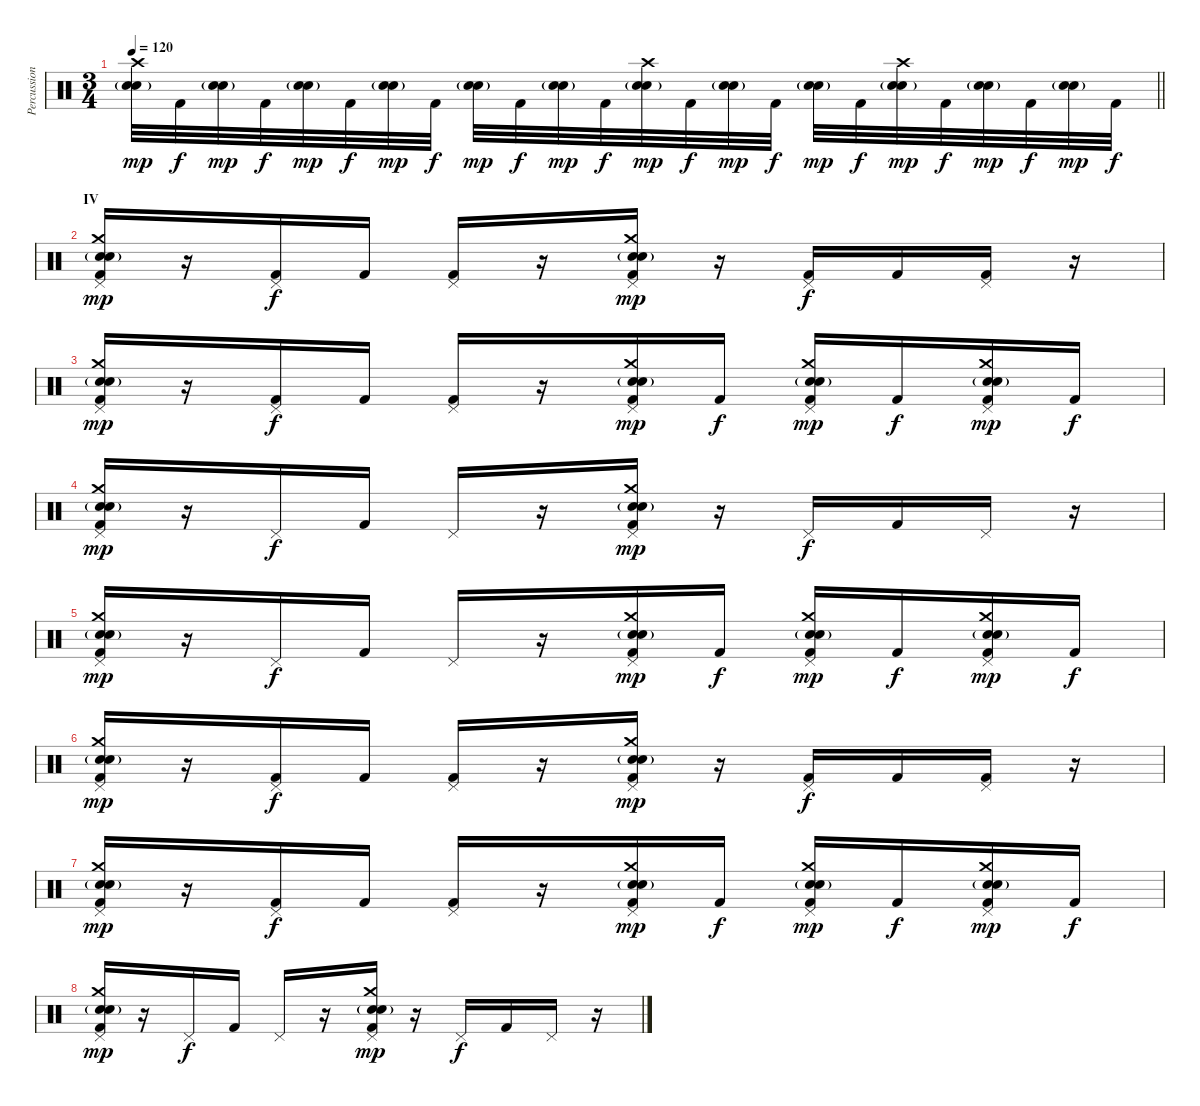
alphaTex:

\track ("Percussion" "Percussion") {instrument percussion}
\staff {score}
\articulation defaults
\ts (3 4)
\tempo 120
\clef neutral
\barLineRight lightlight
\ks c
("Crash high (hit)" "Electric Snare (hit)" "Snare (hit) 2"{g}).32{dy mp} "Kick (hit) 2".32{dy f} ("Electric Snare (hit)" "Snare (hit) 2"{g}).32{dy mp} "Kick (hit) 2".32{dy f} ("Electric Snare (hit)" "Snare (hit) 2"{g}).32{dy mp} "Kick (hit) 2".32{dy f} ("Electric Snare (hit)" "Snare (hit) 2"{g}).32{dy mp} "Kick (hit) 2".32{dy f} ("Electric Snare (hit)" "Snare (hit) 2"{g}).32{dy mp} "Kick (hit) 2".32{dy f} ("Electric Snare (hit)" "Snare (hit) 2"{g}).32{dy mp} "Kick (hit) 2".32{dy f} ("Crash high (hit)" "Electric Snare (hit)" "Snare (hit) 2"{g}).32{dy mp} "Kick (hit) 2".32{dy f} ("Electric Snare (hit)" "Snare (hit) 2"{g}).32{dy mp} "Kick (hit) 2".32{dy f} ("Electric Snare (hit)" "Snare (hit) 2"{g}).32{dy mp} "Kick (hit) 2".32{dy f} ("Crash high (hit)" "Electric Snare (hit)" "Snare (hit) 2"{g}).32{dy mp} "Kick (hit) 2".32{dy f} ("Electric Snare (hit)" "Snare (hit) 2"{g}).32{dy mp} "Kick (hit) 2".32{dy f} ("Electric Snare (hit)" "Snare (hit) 2"{g}).32{dy mp} "Kick (hit) 2".32{dy f} |
\section ("" "IV")
("Crash medium (hit)" "Electric Snare (hit)" "Snare (hit) 2"{g} "Kick (hit) 2" "Pedal Hi-Hat (hit)").16{dy mp} r.16 ("Kick (hit) 2" "Pedal Hi-Hat (hit)").16{dy f} "Kick (hit) 2".16 ("Kick (hit) 2" "Pedal Hi-Hat (hit)").16 r.16 ("Crash medium (hit)" "Electric Snare (hit)" "Snare (hit) 2"{g} "Kick (hit) 2" "Pedal Hi-Hat (hit)").16{dy mp} r.16 ("Kick (hit) 2" "Pedal Hi-Hat (hit)").16{dy f} "Kick (hit) 2".16 ("Kick (hit) 2" "Pedal Hi-Hat (hit)").16 r.16 |
("Crash medium (hit)" "Electric Snare (hit)" "Snare (hit) 2"{g} "Kick (hit) 2" "Pedal Hi-Hat (hit)").16{dy mp} r.16 ("Kick (hit) 2" "Pedal Hi-Hat (hit)").16{dy f} "Kick (hit) 2".16 ("Kick (hit) 2" "Pedal Hi-Hat (hit)").16 r.16 ("Crash medium (hit)" "Electric Snare (hit)" "Snare (hit) 2"{g} "Kick (hit) 2" "Pedal Hi-Hat (hit)").16{dy mp} "Kick (hit) 2".16{dy f} ("Crash medium (hit)" "Electric Snare (hit)" "Snare (hit) 2"{g} "Kick (hit) 2" "Pedal Hi-Hat (hit)").16{dy mp} "Kick (hit) 2".16{dy f} ("Crash medium (hit)" "Electric Snare (hit)" "Snare (hit) 2"{g} "Kick (hit) 2" "Pedal Hi-Hat (hit)").16{dy mp} "Kick (hit) 2".16{dy f} |
("Crash medium (hit)" "Electric Snare (hit)" "Snare (hit) 2"{g} "Kick (hit) 2" "Pedal Hi-Hat (hit)").16{dy mp} r.16 "Pedal Hi-Hat (hit)".16{dy f} "Kick (hit) 2".16 "Pedal Hi-Hat (hit)".16 r.16 ("Crash medium (hit)" "Electric Snare (hit)" "Snare (hit) 2"{g} "Kick (hit) 2" "Pedal Hi-Hat (hit)").16{dy mp} r.16 "Pedal Hi-Hat (hit)".16{dy f} "Kick (hit) 2".16 "Pedal Hi-Hat (hit)".16 r.16 |
("Crash medium (hit)" "Electric Snare (hit)" "Snare (hit) 2"{g} "Kick (hit) 2" "Pedal Hi-Hat (hit)").16{dy mp} r.16 "Pedal Hi-Hat (hit)".16{dy f} "Kick (hit) 2".16 "Pedal Hi-Hat (hit)".16 r.16 ("Crash medium (hit)" "Electric Snare (hit)" "Snare (hit) 2"{g} "Kick (hit) 2" "Pedal Hi-Hat (hit)").16{dy mp} "Kick (hit) 2".16{dy f} ("Crash medium (hit)" "Electric Snare (hit)" "Snare (hit) 2"{g} "Kick (hit) 2" "Pedal Hi-Hat (hit)").16{dy mp} "Kick (hit) 2".16{dy f} ("Crash medium (hit)" "Electric Snare (hit)" "Snare (hit) 2"{g} "Kick (hit) 2" "Pedal Hi-Hat (hit)").16{dy mp} "Kick (hit) 2".16{dy f} |
("Crash medium (hit)" "Electric Snare (hit)" "Snare (hit) 2"{g} "Kick (hit) 2" "Pedal Hi-Hat (hit)").16{dy mp} r.16 ("Kick (hit) 2" "Pedal Hi-Hat (hit)").16{dy f} "Kick (hit) 2".16 ("Kick (hit) 2" "Pedal Hi-Hat (hit)").16 r.16 ("Crash medium (hit)" "Electric Snare (hit)" "Snare (hit) 2"{g} "Kick (hit) 2" "Pedal Hi-Hat (hit)").16{dy mp} r.16 ("Kick (hit) 2" "Pedal Hi-Hat (hit)").16{dy f} "Kick (hit) 2".16 ("Kick (hit) 2" "Pedal Hi-Hat (hit)").16 r.16 |
("Crash medium (hit)" "Electric Snare (hit)" "Snare (hit) 2"{g} "Kick (hit) 2" "Pedal Hi-Hat (hit)").16{dy mp} r.16 ("Kick (hit) 2" "Pedal Hi-Hat (hit)").16{dy f} "Kick (hit) 2".16 ("Kick (hit) 2" "Pedal Hi-Hat (hit)").16 r.16 ("Crash medium (hit)" "Electric Snare (hit)" "Snare (hit) 2"{g} "Kick (hit) 2" "Pedal Hi-Hat (hit)").16{dy mp} "Kick (hit) 2".16{dy f} ("Crash medium (hit)" "Electric Snare (hit)" "Snare (hit) 2"{g} "Kick (hit) 2" "Pedal Hi-Hat (hit)").16{dy mp} "Kick (hit) 2".16{dy f} ("Crash medium (hit)" "Electric Snare (hit)" "Snare (hit) 2"{g} "Kick (hit) 2" "Pedal Hi-Hat (hit)").16{dy mp} "Kick (hit) 2".16{dy f} |
("Crash medium (hit)" "Electric Snare (hit)" "Snare (hit) 2"{g} "Kick (hit) 2" "Pedal Hi-Hat (hit)").16{dy mp} r.16 "Pedal Hi-Hat (hit)".16{dy f} "Kick (hit) 2".16 "Pedal Hi-Hat (hit)".16 r.16 ("Crash medium (hit)" "Electric Snare (hit)" "Snare (hit) 2"{g} "Kick (hit) 2" "Pedal Hi-Hat (hit)").16{dy mp} r.16 "Pedal Hi-Hat (hit)".16{dy f} "Kick (hit) 2".16 "Pedal Hi-Hat (hit)".16 r.16
